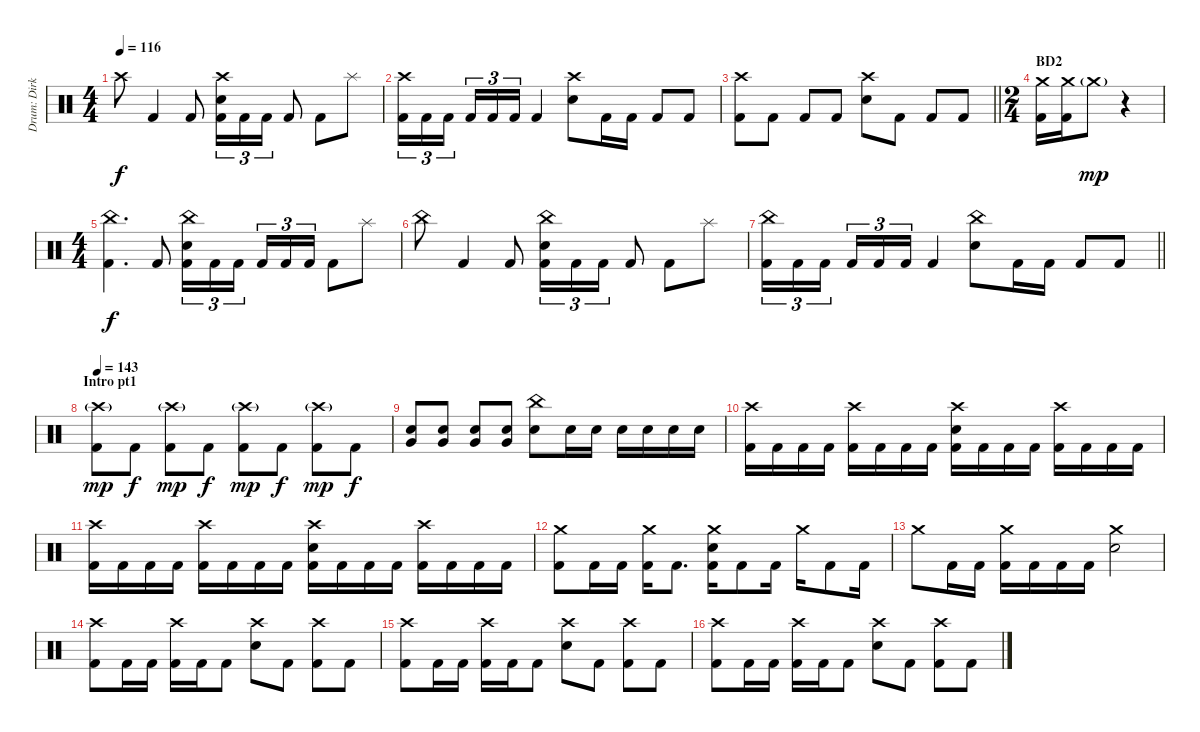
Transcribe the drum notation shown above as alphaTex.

\track ("Drum: Dirk" "Drum: Dirk") {instrument percussion}
\staff {score}
\articulation defaults
\ts (4 4)
\tempo 116
\clef neutral
\ks c "Crash high (hit)".8{dy f} "Kick (hit) 2".4 "Kick (hit) 2".8
("Crash high (hit)" "Electric Snare (hit)" "Kick (hit) 2").16{tu (3 2)} "Kick (hit) 2".16{tu (3 2)} "Kick (hit) 2".16{tu (3 2)} "Kick (hit) 2".8 "Kick (hit) 2".8 "Splash (hit)".8 |
("Crash high (hit)" "Kick (hit) 2").16{tu (3 2)} "Kick (hit) 2".16{tu (3 2)} "Kick (hit) 2".16{tu (3 2) beam splitsecondary} "Kick (hit) 2".16{tu (3 2)} "Kick (hit) 2".16{tu (3 2)} "Kick (hit) 2".16{tu (3 2)} "Kick (hit) 2".4 ("Crash high (hit)" "Electric Snare (hit)").8 "Kick (hit) 2".16 "Kick (hit) 2".16 "Kick (hit) 2".8 "Kick (hit) 2".8 |
\barLineRight lightlight
("Crash high (hit)" "Kick (hit) 2").8 "Kick (hit) 2".8 "Kick (hit) 2".8 "Kick (hit) 2".8 ("Crash high (hit)" "Electric Snare (hit)").8 "Kick (hit) 2".8 "Kick (hit) 2".8 "Kick (hit) 2".8 |
\ts (2 4)
\section ("" "BD2")
("Crash medium (hit)" "Kick (hit) 2").16 ("Crash medium (hit)" "Kick (hit) 2").16 "Crash medium (hit)"{g}.8{dy mp} r.4 |
\ts (4 4)
("China (hit)" "Kick (hit) 2").4{d dy f} "Kick (hit) 2".8 ("China (hit)" "Electric Snare (hit)" "Kick (hit) 2").16{tu (3 2)} "Kick (hit) 2".16{tu (3 2)} "Kick (hit) 2".16{tu (3 2) beam splitsecondary} "Kick (hit) 2".16{tu (3 2)} "Kick (hit) 2".16{tu (3 2)} "Kick (hit) 2".16{tu (3 2)} "Kick (hit) 2".8 "Splash (hit)".8 |
"China (hit)".8 "Kick (hit) 2".4 "Kick (hit) 2".8 ("China (hit)" "Electric Snare (hit)" "Kick (hit) 2").16{tu (3 2)} "Kick (hit) 2".16{tu (3 2)} "Kick (hit) 2".16{tu (3 2)} "Kick (hit) 2".8 "Kick (hit) 2".8 "Splash (hit)".8 |
\barLineRight lightlight
("China (hit)" "Kick (hit) 2").16{tu (3 2)} "Kick (hit) 2".16{tu (3 2)} "Kick (hit) 2".16{tu (3 2) beam splitsecondary} "Kick (hit) 2".16{tu (3 2)} "Kick (hit) 2".16{tu (3 2)} "Kick (hit) 2".16{tu (3 2)} "Kick (hit) 2".4 ("China (hit)" "Electric Snare (hit)").8 "Kick (hit) 2".16 "Kick (hit) 2".16 "Kick (hit) 2".8 "Kick (hit) 2".8 |
\section ("" "Intro pt1")
\tempo 143
("Crash high (hit)"{g} "Kick (hit) 2").8{dy mp} "Kick (hit) 2".8{dy f} ("Crash high (hit)"{g} "Kick (hit) 2").8{dy mp} "Kick (hit) 2".8{dy f} ("Crash high (hit)"{g} "Kick (hit) 2").8{dy mp} "Kick (hit) 2".8{dy f} ("Crash high (hit)"{g} "Kick (hit) 2").8{dy mp} "Kick (hit) 2".8{dy f} |
("Electric Snare (hit)" "Very Low Tom (hit)").8 ("Electric Snare (hit)" "Very Low Tom (hit)").8 ("Electric Snare (hit)" "Very Low Tom (hit)").8 ("Electric Snare (hit)" "Very Low Tom (hit)").8 ("China (hit)" "Electric Snare (hit)").8 "Electric Snare (hit)".16 "Electric Snare (hit)".16 "Electric Snare (hit)".16 "Electric Snare (hit)".16 "Electric Snare (hit)".16 "Electric Snare (hit)".16 |
("Crash high (hit)" "Kick (hit) 2").16 "Kick (hit) 2".16 "Kick (hit) 2".16 "Kick (hit) 2".16 ("Crash high (hit)" "Kick (hit) 2").16 "Kick (hit) 2".16 "Kick (hit) 2".16 "Kick (hit) 2".16 ("Crash high (hit)" "Electric Snare (hit)" "Kick (hit) 2").16 "Kick (hit) 2".16 "Kick (hit) 2".16 "Kick (hit) 2".16 ("Crash high (hit)" "Kick (hit) 2").16 "Kick (hit) 2".16 "Kick (hit) 2".16 "Kick (hit) 2".16 |
("Crash high (hit)" "Kick (hit) 2").16 "Kick (hit) 2".16 "Kick (hit) 2".16 "Kick (hit) 2".16 ("Crash high (hit)" "Kick (hit) 2").16 "Kick (hit) 2".16 "Kick (hit) 2".16 "Kick (hit) 2".16 ("Crash high (hit)" "Electric Snare (hit)" "Kick (hit) 2").16 "Kick (hit) 2".16 "Kick (hit) 2".16 "Kick (hit) 2".16 ("Crash high (hit)" "Kick (hit) 2").16 "Kick (hit) 2".16 "Kick (hit) 2".16 "Kick (hit) 2".16 |
("Crash medium (hit)" "Kick (hit) 2").8 "Kick (hit) 2".16 "Kick (hit) 2".16 ("Crash medium (hit)" "Kick (hit) 2").16 "Kick (hit) 2".8{d} ("Crash medium (hit)" "Electric Snare (hit)" "Kick (hit) 2").16 "Kick (hit) 2".8 "Kick (hit) 2".16 "Crash medium (hit)".16 "Kick (hit) 2".8 "Kick (hit) 2".16 |
"Crash medium (hit)".8 "Kick (hit) 2".16 "Kick (hit) 2".16 ("Crash medium (hit)" "Kick (hit) 2").16 "Kick (hit) 2".16 "Kick (hit) 2".16 "Kick (hit) 2".16 ("Crash medium (hit)" "Electric Snare (hit)").2 |
("Crash high (hit)" "Kick (hit) 2").8 "Kick (hit) 2".16 "Kick (hit) 2".16 ("Crash high (hit)" "Kick (hit) 2").16 "Kick (hit) 2".16 "Kick (hit) 2".8 ("Crash high (hit)" "Electric Snare (hit)").8 "Kick (hit) 2".8 ("Crash high (hit)" "Kick (hit) 2").8 "Kick (hit) 2".8 |
("Crash high (hit)" "Kick (hit) 2").8 "Kick (hit) 2".16 "Kick (hit) 2".16 ("Crash high (hit)" "Kick (hit) 2").16 "Kick (hit) 2".16 "Kick (hit) 2".8 ("Crash high (hit)" "Electric Snare (hit)").8 "Kick (hit) 2".8 ("Crash high (hit)" "Kick (hit) 2").8 "Kick (hit) 2".8 |
("Crash high (hit)" "Kick (hit) 2").8 "Kick (hit) 2".16 "Kick (hit) 2".16 ("Crash high (hit)" "Kick (hit) 2").16 "Kick (hit) 2".16 "Kick (hit) 2".8 ("Crash high (hit)" "Electric Snare (hit)").8 "Kick (hit) 2".8 ("Crash high (hit)" "Kick (hit) 2").8 "Kick (hit) 2".8
